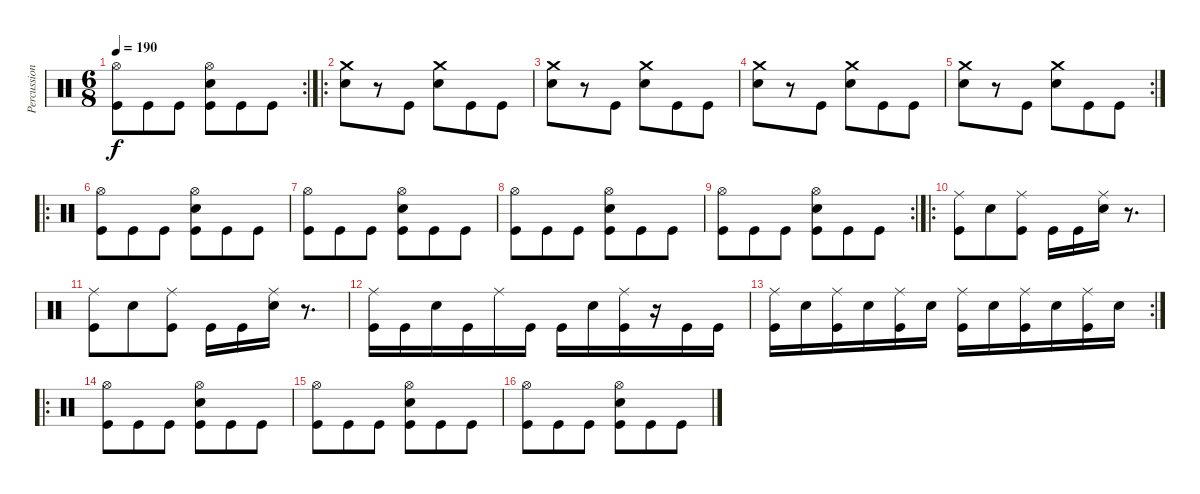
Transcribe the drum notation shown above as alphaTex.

\track ("Percussion" "Percussion") {instrument percussion}
\staff {score}
\articulation defaults
\rc 2
\ts (6 8)
\tempo 190
\clef neutral
\ks c
("Hi-Hat (open)" "Kick (hit)").8{dy f} "Kick (hit)".8 "Kick (hit)".8 ("Hi-Hat (open)" "Snare (hit) 2" "Kick (hit)").8 "Kick (hit)".8 "Kick (hit)".8 |
\ro
("Crash medium (hit)" "Snare (hit) 2").8 r.8 "Kick (hit)".8 ("Crash medium (hit)" "Snare (hit) 2").8 "Kick (hit)".8 "Kick (hit)".8 |
("Crash medium (hit)" "Snare (hit) 2").8 r.8 "Kick (hit)".8 ("Crash medium (hit)" "Snare (hit) 2").8 "Kick (hit)".8 "Kick (hit)".8 |
("Crash medium (hit)" "Snare (hit) 2").8 r.8 "Kick (hit)".8 ("Crash medium (hit)" "Snare (hit) 2").8 "Kick (hit)".8 "Kick (hit)".8 |
\rc 2
("Crash medium (hit)" "Snare (hit) 2").8 r.8 "Kick (hit)".8 ("Crash medium (hit)" "Snare (hit) 2").8 "Kick (hit)".8 "Kick (hit)".8 |
\ro
("Hi-Hat (open)" "Kick (hit)").8 "Kick (hit)".8 "Kick (hit)".8 ("Hi-Hat (open)" "Snare (hit) 2" "Kick (hit)").8 "Kick (hit)".8 "Kick (hit)".8 |
("Hi-Hat (open)" "Kick (hit)").8 "Kick (hit)".8 "Kick (hit)".8 ("Hi-Hat (open)" "Snare (hit) 2" "Kick (hit)").8 "Kick (hit)".8 "Kick (hit)".8 |
("Hi-Hat (open)" "Kick (hit)").8 "Kick (hit)".8 "Kick (hit)".8 ("Hi-Hat (open)" "Snare (hit) 2" "Kick (hit)").8 "Kick (hit)".8 "Kick (hit)".8 |
\rc 2
("Hi-Hat (open)" "Kick (hit)").8 "Kick (hit)".8 "Kick (hit)".8 ("Hi-Hat (open)" "Snare (hit) 2" "Kick (hit)").8 "Kick (hit)".8 "Kick (hit)".8 |
\ro
("Ride (middle)" "Kick (hit)").8 "Snare (hit) 2".8 ("Ride (middle)" "Kick (hit)").8 "Kick (hit)".16 "Kick (hit)".16 ("Ride (middle)" "Snare (hit) 2").16 r.8{d} |
("Ride (middle)" "Kick (hit)").8 "Snare (hit) 2".8 ("Ride (middle)" "Kick (hit)").8 "Kick (hit)".16 "Kick (hit)".16 ("Ride (middle)" "Snare (hit) 2").16 r.8{d} |
("Ride (middle)" "Kick (hit)").16 "Kick (hit)".16 "Snare (hit) 2".16 "Kick (hit)".16 "Ride (middle)".16 "Kick (hit)".16 "Kick (hit)".16 "Snare (hit) 2".16 ("Ride (middle)" "Kick (hit)").16 r.16 "Kick (hit)".16 "Kick (hit)".16 |
\rc 2
("Ride (middle)" "Kick (hit)").16 "Snare (hit) 2".16 ("Ride (middle)" "Kick (hit)").16 "Snare (hit) 2".16 ("Ride (middle)" "Kick (hit)").16 "Snare (hit) 2".16 ("Ride (middle)" "Kick (hit)").16 "Snare (hit) 2".16 ("Ride (middle)" "Kick (hit)").16 "Snare (hit) 2".16 ("Ride (middle)" "Kick (hit)").16 "Snare (hit) 2".16 |
\ro
("Hi-Hat (open)" "Kick (hit)").8 "Kick (hit)".8 "Kick (hit)".8 ("Hi-Hat (open)" "Snare (hit) 2" "Kick (hit)").8 "Kick (hit)".8 "Kick (hit)".8 |
("Hi-Hat (open)" "Kick (hit)").8 "Kick (hit)".8 "Kick (hit)".8 ("Hi-Hat (open)" "Snare (hit) 2" "Kick (hit)").8 "Kick (hit)".8 "Kick (hit)".8 |
("Hi-Hat (open)" "Kick (hit)").8 "Kick (hit)".8 "Kick (hit)".8 ("Hi-Hat (open)" "Snare (hit) 2" "Kick (hit)").8 "Kick (hit)".8 "Kick (hit)".8
